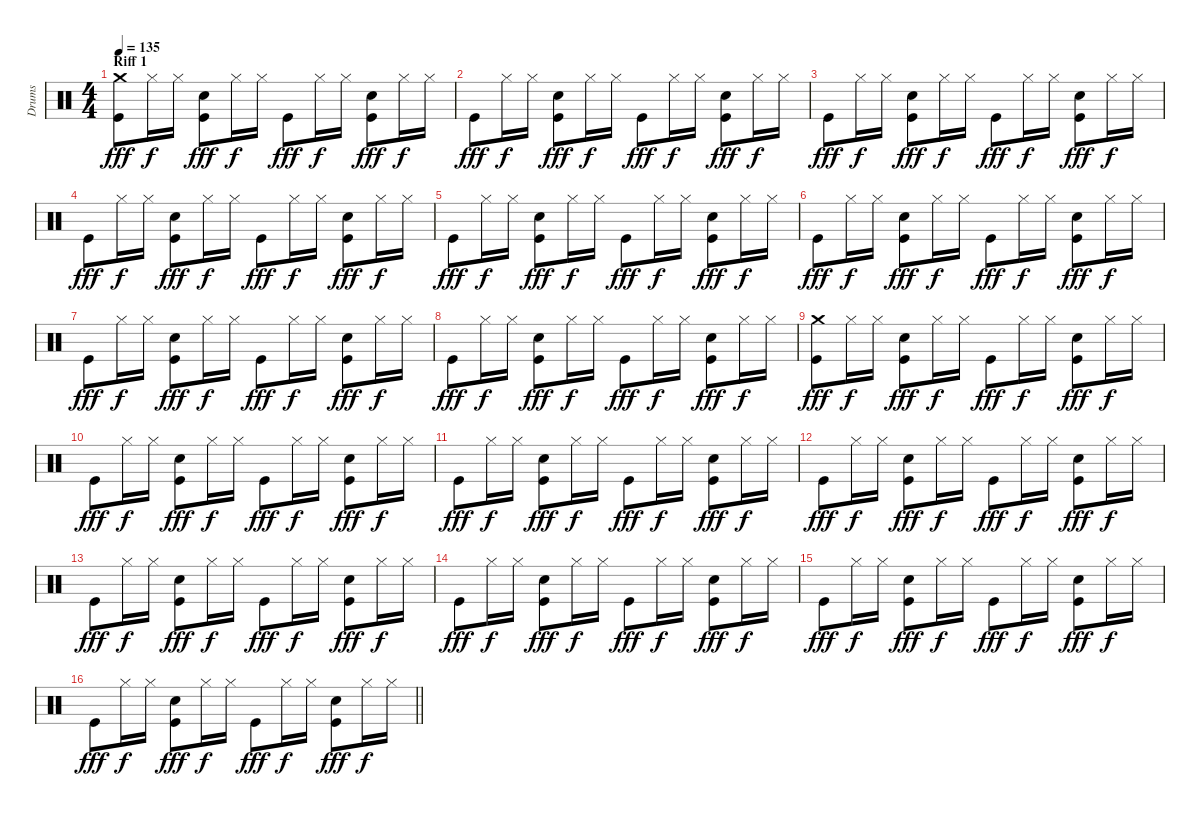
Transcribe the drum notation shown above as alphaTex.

\track ("Drums" "Drums") {instrument percussion}
\staff {score}
\articulation defaults
\ts (4 4)
\section ("" "Riff 1")
\tempo 135
\clef neutral
\ks c
("Kick (hit)" "Crash medium (hit)").8{dy fff} "Hi-Hat (closed)".16{dy f} "Hi-Hat (closed)".16 ("Kick (hit)" "Snare (hit) 2").8{dy fff} "Hi-Hat (closed)".16{dy f} "Hi-Hat (closed)".16 "Kick (hit)".8{dy fff} "Hi-Hat (closed)".16{dy f} "Hi-Hat (closed)".16 ("Kick (hit)" "Snare (hit) 2").8{dy fff} "Hi-Hat (closed)".16{dy f} "Hi-Hat (closed)".16 |
"Kick (hit)".8{dy fff} "Hi-Hat (closed)".16{dy f} "Hi-Hat (closed)".16 ("Kick (hit)" "Snare (hit) 2").8{dy fff} "Hi-Hat (closed)".16{dy f} "Hi-Hat (closed)".16 "Kick (hit)".8{dy fff} "Hi-Hat (closed)".16{dy f} "Hi-Hat (closed)".16 ("Kick (hit)" "Snare (hit) 2").8{dy fff} "Hi-Hat (closed)".16{dy f} "Hi-Hat (closed)".16 |
"Kick (hit)".8{dy fff} "Hi-Hat (closed)".16{dy f} "Hi-Hat (closed)".16 ("Kick (hit)" "Snare (hit) 2").8{dy fff} "Hi-Hat (closed)".16{dy f} "Hi-Hat (closed)".16 "Kick (hit)".8{dy fff} "Hi-Hat (closed)".16{dy f} "Hi-Hat (closed)".16 ("Kick (hit)" "Snare (hit) 2").8{dy fff} "Hi-Hat (closed)".16{dy f} "Hi-Hat (closed)".16 |
"Kick (hit)".8{dy fff} "Hi-Hat (closed)".16{dy f} "Hi-Hat (closed)".16 ("Kick (hit)" "Snare (hit) 2").8{dy fff} "Hi-Hat (closed)".16{dy f} "Hi-Hat (closed)".16 "Kick (hit)".8{dy fff} "Hi-Hat (closed)".16{dy f} "Hi-Hat (closed)".16 ("Kick (hit)" "Snare (hit) 2").8{dy fff} "Hi-Hat (closed)".16{dy f} "Hi-Hat (closed)".16 |
"Kick (hit)".8{dy fff} "Hi-Hat (closed)".16{dy f} "Hi-Hat (closed)".16 ("Kick (hit)" "Snare (hit) 2").8{dy fff} "Hi-Hat (closed)".16{dy f} "Hi-Hat (closed)".16 "Kick (hit)".8{dy fff} "Hi-Hat (closed)".16{dy f} "Hi-Hat (closed)".16 ("Kick (hit)" "Snare (hit) 2").8{dy fff} "Hi-Hat (closed)".16{dy f} "Hi-Hat (closed)".16 |
"Kick (hit)".8{dy fff} "Hi-Hat (closed)".16{dy f} "Hi-Hat (closed)".16 ("Kick (hit)" "Snare (hit) 2").8{dy fff} "Hi-Hat (closed)".16{dy f} "Hi-Hat (closed)".16 "Kick (hit)".8{dy fff} "Hi-Hat (closed)".16{dy f} "Hi-Hat (closed)".16 ("Kick (hit)" "Snare (hit) 2").8{dy fff} "Hi-Hat (closed)".16{dy f} "Hi-Hat (closed)".16 |
"Kick (hit)".8{dy fff} "Hi-Hat (closed)".16{dy f} "Hi-Hat (closed)".16 ("Kick (hit)" "Snare (hit) 2").8{dy fff} "Hi-Hat (closed)".16{dy f} "Hi-Hat (closed)".16 "Kick (hit)".8{dy fff} "Hi-Hat (closed)".16{dy f} "Hi-Hat (closed)".16 ("Kick (hit)" "Snare (hit) 2").8{dy fff} "Hi-Hat (closed)".16{dy f} "Hi-Hat (closed)".16 |
"Kick (hit)".8{dy fff} "Hi-Hat (closed)".16{dy f} "Hi-Hat (closed)".16 ("Kick (hit)" "Snare (hit) 2").8{dy fff} "Hi-Hat (closed)".16{dy f} "Hi-Hat (closed)".16 "Kick (hit)".8{dy fff} "Hi-Hat (closed)".16{dy f} "Hi-Hat (closed)".16 ("Kick (hit)" "Snare (hit) 2").8{dy fff} "Hi-Hat (closed)".16{dy f} "Hi-Hat (closed)".16 |
("Kick (hit)" "Crash medium (hit)").8{dy fff} "Hi-Hat (closed)".16{dy f} "Hi-Hat (closed)".16 ("Kick (hit)" "Snare (hit) 2").8{dy fff} "Hi-Hat (closed)".16{dy f} "Hi-Hat (closed)".16 "Kick (hit)".8{dy fff} "Hi-Hat (closed)".16{dy f} "Hi-Hat (closed)".16 ("Kick (hit)" "Snare (hit) 2").8{dy fff} "Hi-Hat (closed)".16{dy f} "Hi-Hat (closed)".16 |
"Kick (hit)".8{dy fff} "Hi-Hat (closed)".16{dy f} "Hi-Hat (closed)".16 ("Kick (hit)" "Snare (hit) 2").8{dy fff} "Hi-Hat (closed)".16{dy f} "Hi-Hat (closed)".16 "Kick (hit)".8{dy fff} "Hi-Hat (closed)".16{dy f} "Hi-Hat (closed)".16 ("Kick (hit)" "Snare (hit) 2").8{dy fff} "Hi-Hat (closed)".16{dy f} "Hi-Hat (closed)".16 |
"Kick (hit)".8{dy fff} "Hi-Hat (closed)".16{dy f} "Hi-Hat (closed)".16 ("Kick (hit)" "Snare (hit) 2").8{dy fff} "Hi-Hat (closed)".16{dy f} "Hi-Hat (closed)".16 "Kick (hit)".8{dy fff} "Hi-Hat (closed)".16{dy f} "Hi-Hat (closed)".16 ("Kick (hit)" "Snare (hit) 2").8{dy fff} "Hi-Hat (closed)".16{dy f} "Hi-Hat (closed)".16 |
"Kick (hit)".8{dy fff} "Hi-Hat (closed)".16{dy f} "Hi-Hat (closed)".16 ("Kick (hit)" "Snare (hit) 2").8{dy fff} "Hi-Hat (closed)".16{dy f} "Hi-Hat (closed)".16 "Kick (hit)".8{dy fff} "Hi-Hat (closed)".16{dy f} "Hi-Hat (closed)".16 ("Kick (hit)" "Snare (hit) 2").8{dy fff} "Hi-Hat (closed)".16{dy f} "Hi-Hat (closed)".16 |
"Kick (hit)".8{dy fff} "Hi-Hat (closed)".16{dy f} "Hi-Hat (closed)".16 ("Kick (hit)" "Snare (hit) 2").8{dy fff} "Hi-Hat (closed)".16{dy f} "Hi-Hat (closed)".16 "Kick (hit)".8{dy fff} "Hi-Hat (closed)".16{dy f} "Hi-Hat (closed)".16 ("Kick (hit)" "Snare (hit) 2").8{dy fff} "Hi-Hat (closed)".16{dy f} "Hi-Hat (closed)".16 |
"Kick (hit)".8{dy fff} "Hi-Hat (closed)".16{dy f} "Hi-Hat (closed)".16 ("Kick (hit)" "Snare (hit) 2").8{dy fff} "Hi-Hat (closed)".16{dy f} "Hi-Hat (closed)".16 "Kick (hit)".8{dy fff} "Hi-Hat (closed)".16{dy f} "Hi-Hat (closed)".16 ("Kick (hit)" "Snare (hit) 2").8{dy fff} "Hi-Hat (closed)".16{dy f} "Hi-Hat (closed)".16 |
"Kick (hit)".8{dy fff} "Hi-Hat (closed)".16{dy f} "Hi-Hat (closed)".16 ("Kick (hit)" "Snare (hit) 2").8{dy fff} "Hi-Hat (closed)".16{dy f} "Hi-Hat (closed)".16 "Kick (hit)".8{dy fff} "Hi-Hat (closed)".16{dy f} "Hi-Hat (closed)".16 ("Kick (hit)" "Snare (hit) 2").8{dy fff} "Hi-Hat (closed)".16{dy f} "Hi-Hat (closed)".16 |
\barLineRight lightlight "Kick (hit)".8{dy fff} "Hi-Hat (closed)".16{dy f} "Hi-Hat (closed)".16
("Kick (hit)" "Snare (hit) 2").8{dy fff} "Hi-Hat (closed)".16{dy f} "Hi-Hat (closed)".16 "Kick (hit)".8{dy fff} "Hi-Hat (closed)".16{dy f} "Hi-Hat (closed)".16 ("Kick (hit)" "Snare (hit) 2").8{dy fff} "Hi-Hat (closed)".16{dy f} "Hi-Hat (closed)".16
